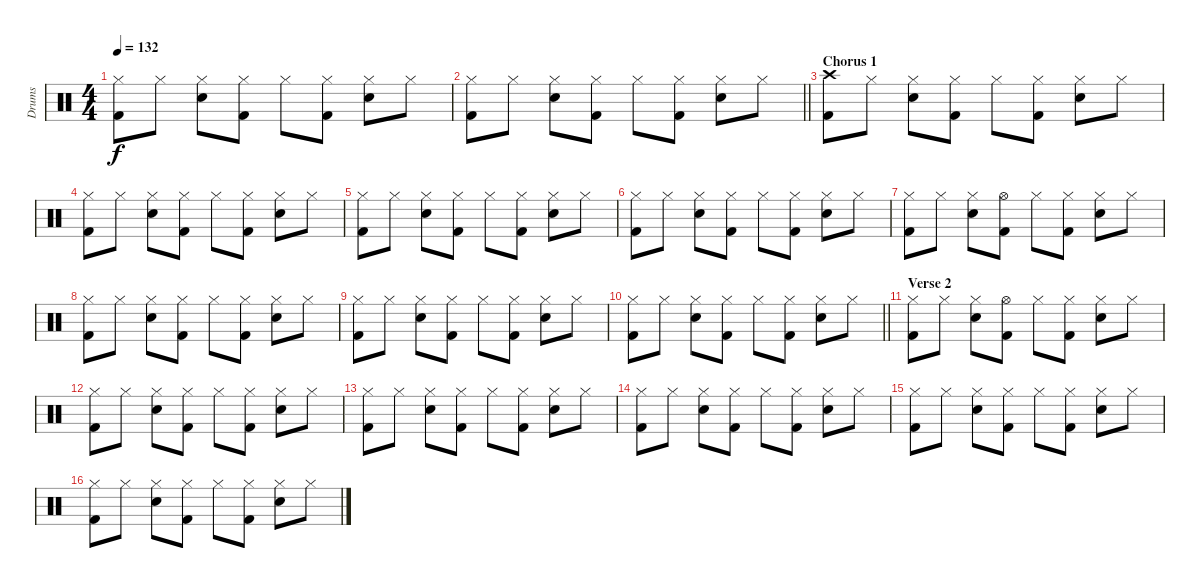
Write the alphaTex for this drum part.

\track ("Drums" "Drums") {instrument percussion}
\staff {score}
\articulation defaults
\ts (4 4)
\tempo 132
\clef neutral
\ks c
("Hi-Hat (closed)" "Kick (hit) 2").8{dy f} "Hi-Hat (closed)".8 ("Hi-Hat (closed)" "Electric Snare (hit)").8 ("Hi-Hat (closed)" "Kick (hit) 2").8 "Hi-Hat (closed)".8 ("Hi-Hat (closed)" "Kick (hit) 2").8 ("Hi-Hat (closed)" "Electric Snare (hit)").8 "Hi-Hat (closed)".8 |
\barLineRight lightlight
("Hi-Hat (closed)" "Kick (hit) 2").8 "Hi-Hat (closed)".8 ("Hi-Hat (closed)" "Electric Snare (hit)").8 ("Hi-Hat (closed)" "Kick (hit) 2").8 "Hi-Hat (closed)".8 ("Hi-Hat (closed)" "Kick (hit) 2").8 ("Hi-Hat (closed)" "Electric Snare (hit)").8 "Hi-Hat (closed)".8 |
\section ("" "Chorus 1")
("Crash high (hit)" "Kick (hit) 2").8 "Hi-Hat (closed)".8 ("Hi-Hat (closed)" "Electric Snare (hit)").8 ("Hi-Hat (closed)" "Kick (hit) 2").8 "Hi-Hat (closed)".8 ("Hi-Hat (closed)" "Kick (hit) 2").8 ("Hi-Hat (closed)" "Electric Snare (hit)").8 "Hi-Hat (closed)".8 |
("Hi-Hat (closed)" "Kick (hit) 2").8 "Hi-Hat (closed)".8 ("Hi-Hat (closed)" "Electric Snare (hit)").8 ("Hi-Hat (closed)" "Kick (hit) 2").8 "Hi-Hat (closed)".8 ("Hi-Hat (closed)" "Kick (hit) 2").8 ("Hi-Hat (closed)" "Electric Snare (hit)").8 "Hi-Hat (closed)".8 |
("Hi-Hat (closed)" "Kick (hit) 2").8 "Hi-Hat (closed)".8 ("Hi-Hat (closed)" "Electric Snare (hit)").8 ("Hi-Hat (closed)" "Kick (hit) 2").8 "Hi-Hat (closed)".8 ("Hi-Hat (closed)" "Kick (hit) 2").8 ("Hi-Hat (closed)" "Electric Snare (hit)").8 "Hi-Hat (closed)".8 |
("Hi-Hat (closed)" "Kick (hit) 2").8 "Hi-Hat (closed)".8 ("Hi-Hat (closed)" "Electric Snare (hit)").8 ("Hi-Hat (closed)" "Kick (hit) 2").8 "Hi-Hat (closed)".8 ("Hi-Hat (closed)" "Kick (hit) 2").8 ("Hi-Hat (closed)" "Electric Snare (hit)").8 "Hi-Hat (closed)".8 |
("Hi-Hat (closed)" "Kick (hit) 2").8 "Hi-Hat (closed)".8 ("Hi-Hat (closed)" "Electric Snare (hit)").8 ("Hi-Hat (open)" "Kick (hit) 2").8 "Hi-Hat (closed)".8 ("Hi-Hat (closed)" "Kick (hit) 2").8 ("Hi-Hat (closed)" "Electric Snare (hit)").8 "Hi-Hat (closed)".8 |
("Hi-Hat (closed)" "Kick (hit) 2").8 "Hi-Hat (closed)".8 ("Hi-Hat (closed)" "Electric Snare (hit)").8 ("Hi-Hat (closed)" "Kick (hit) 2").8 "Hi-Hat (closed)".8 ("Hi-Hat (closed)" "Kick (hit) 2").8 ("Hi-Hat (closed)" "Electric Snare (hit)").8 "Hi-Hat (closed)".8 |
("Hi-Hat (closed)" "Kick (hit) 2").8 "Hi-Hat (closed)".8 ("Hi-Hat (closed)" "Electric Snare (hit)").8 ("Hi-Hat (closed)" "Kick (hit) 2").8 "Hi-Hat (closed)".8 ("Hi-Hat (closed)" "Kick (hit) 2").8 ("Hi-Hat (closed)" "Electric Snare (hit)").8 "Hi-Hat (closed)".8 |
\barLineRight lightlight
("Hi-Hat (closed)" "Kick (hit) 2").8 "Hi-Hat (closed)".8 ("Hi-Hat (closed)" "Electric Snare (hit)").8 ("Hi-Hat (closed)" "Kick (hit) 2").8 "Hi-Hat (closed)".8 ("Hi-Hat (closed)" "Kick (hit) 2").8 ("Hi-Hat (closed)" "Electric Snare (hit)").8 "Hi-Hat (closed)".8 |
\section ("" "Verse 2")
("Hi-Hat (closed)" "Kick (hit) 2").8 "Hi-Hat (closed)".8 ("Hi-Hat (closed)" "Electric Snare (hit)").8 ("Hi-Hat (open)" "Kick (hit) 2").8 "Hi-Hat (closed)".8 ("Hi-Hat (closed)" "Kick (hit) 2").8 ("Hi-Hat (closed)" "Electric Snare (hit)").8 "Hi-Hat (closed)".8 |
("Hi-Hat (closed)" "Kick (hit) 2").8 "Hi-Hat (closed)".8 ("Hi-Hat (closed)" "Electric Snare (hit)").8 ("Hi-Hat (closed)" "Kick (hit) 2").8 "Hi-Hat (closed)".8 ("Hi-Hat (closed)" "Kick (hit) 2").8 ("Hi-Hat (closed)" "Electric Snare (hit)").8 "Hi-Hat (closed)".8 |
("Hi-Hat (closed)" "Kick (hit) 2").8 "Hi-Hat (closed)".8 ("Hi-Hat (closed)" "Electric Snare (hit)").8 ("Hi-Hat (closed)" "Kick (hit) 2").8 "Hi-Hat (closed)".8 ("Hi-Hat (closed)" "Kick (hit) 2").8 ("Hi-Hat (closed)" "Electric Snare (hit)").8 "Hi-Hat (closed)".8 |
("Hi-Hat (closed)" "Kick (hit) 2").8 "Hi-Hat (closed)".8 ("Hi-Hat (closed)" "Electric Snare (hit)").8 ("Hi-Hat (closed)" "Kick (hit) 2").8 "Hi-Hat (closed)".8 ("Hi-Hat (closed)" "Kick (hit) 2").8 ("Hi-Hat (closed)" "Electric Snare (hit)").8 "Hi-Hat (closed)".8 |
("Hi-Hat (closed)" "Kick (hit) 2").8 "Hi-Hat (closed)".8 ("Hi-Hat (closed)" "Electric Snare (hit)").8 ("Hi-Hat (closed)" "Kick (hit) 2").8 "Hi-Hat (closed)".8 ("Hi-Hat (closed)" "Kick (hit) 2").8 ("Hi-Hat (closed)" "Electric Snare (hit)").8 "Hi-Hat (closed)".8 |
("Hi-Hat (closed)" "Kick (hit) 2").8 "Hi-Hat (closed)".8 ("Hi-Hat (closed)" "Electric Snare (hit)").8 ("Hi-Hat (closed)" "Kick (hit) 2").8 "Hi-Hat (closed)".8 ("Hi-Hat (closed)" "Kick (hit) 2").8 ("Hi-Hat (closed)" "Electric Snare (hit)").8 "Hi-Hat (closed)".8
